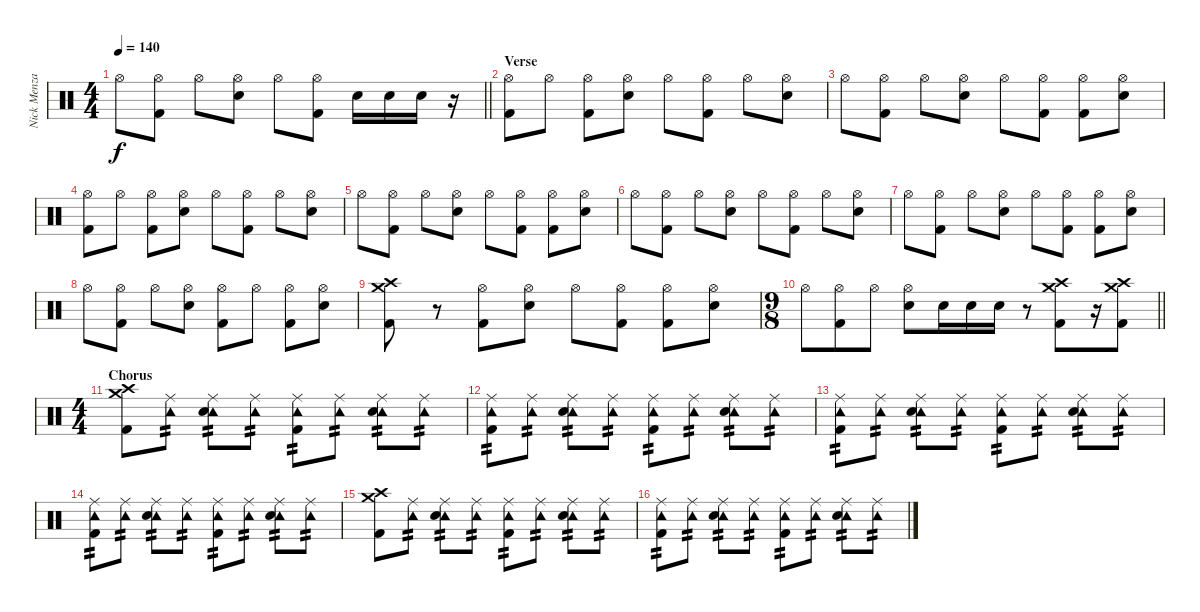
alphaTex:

\track ("Nick Menza" "Nick Menza") {instrument percussion}
\staff {score}
\articulation defaults
\ts (4 4)
\tempo 140
\clef neutral
\barLineRight lightlight
\ks c "Hi-Hat (open)".8{dy f}
("Hi-Hat (open)" "Kick (hit) 2").8 "Hi-Hat (open)".8 ("Hi-Hat (open)" "Snare (hit) 2").8 "Hi-Hat (open)".8 ("Hi-Hat (open)" "Kick (hit) 2").8 "Snare (hit) 2".16 "Snare (hit) 2".16 "Snare (hit) 2".16 r.16 |
\section ("" "Verse")
("Hi-Hat (open)" "Kick (hit) 2").8 "Hi-Hat (open)".8 ("Hi-Hat (open)" "Kick (hit) 2").8 ("Hi-Hat (open)" "Snare (hit) 2").8 "Hi-Hat (open)".8 ("Hi-Hat (open)" "Kick (hit) 2").8 "Hi-Hat (open)".8 ("Hi-Hat (open)" "Snare (hit) 2").8 |
"Hi-Hat (open)".8 ("Hi-Hat (open)" "Kick (hit) 2").8 "Hi-Hat (open)".8 ("Hi-Hat (open)" "Snare (hit) 2").8 "Hi-Hat (open)".8 ("Hi-Hat (open)" "Kick (hit) 2").8 ("Hi-Hat (open)" "Kick (hit) 2").8 ("Hi-Hat (open)" "Snare (hit) 2").8 |
("Hi-Hat (open)" "Kick (hit) 2").8 "Hi-Hat (open)".8 ("Hi-Hat (open)" "Kick (hit) 2").8 ("Hi-Hat (open)" "Snare (hit) 2").8 "Hi-Hat (open)".8 ("Hi-Hat (open)" "Kick (hit) 2").8 "Hi-Hat (open)".8 ("Hi-Hat (open)" "Snare (hit) 2").8 |
"Hi-Hat (open)".8 ("Hi-Hat (open)" "Kick (hit) 2").8 "Hi-Hat (open)".8 ("Hi-Hat (open)" "Snare (hit) 2").8 "Hi-Hat (open)".8 ("Hi-Hat (open)" "Kick (hit) 2").8 ("Hi-Hat (open)" "Kick (hit) 2").8 ("Hi-Hat (open)" "Snare (hit) 2").8 |
"Hi-Hat (open)".8 ("Hi-Hat (open)" "Kick (hit) 2").8 "Hi-Hat (open)".8 ("Hi-Hat (open)" "Snare (hit) 2").8 "Hi-Hat (open)".8 ("Hi-Hat (open)" "Kick (hit) 2").8 "Hi-Hat (open)".8 ("Hi-Hat (open)" "Snare (hit) 2").8 |
"Hi-Hat (open)".8 ("Hi-Hat (open)" "Kick (hit) 2").8 "Hi-Hat (open)".8 ("Hi-Hat (open)" "Snare (hit) 2").8 "Hi-Hat (open)".8 ("Hi-Hat (open)" "Kick (hit) 2").8 ("Hi-Hat (open)" "Kick (hit) 2").8 ("Hi-Hat (open)" "Snare (hit) 2").8 |
"Hi-Hat (open)".8 ("Hi-Hat (open)" "Kick (hit) 2").8 "Hi-Hat (open)".8 ("Hi-Hat (open)" "Snare (hit) 2").8 ("Hi-Hat (open)" "Kick (hit) 2").8 "Hi-Hat (open)".8 ("Hi-Hat (open)" "Kick (hit) 2").8 ("Hi-Hat (open)" "Snare (hit) 2").8 |
("Crash high (hit)" "Crash medium (hit)" "Kick (hit) 2").8 r.8 ("Hi-Hat (open)" "Kick (hit) 2").8 ("Hi-Hat (open)" "Snare (hit) 2").8 "Hi-Hat (open)".8 ("Hi-Hat (open)" "Kick (hit) 2").8 ("Hi-Hat (open)" "Kick (hit) 2").8 ("Hi-Hat (open)" "Snare (hit) 2").8 |
\ts (9 8)
\barLineRight lightlight "Hi-Hat (open)".8
("Hi-Hat (open)" "Kick (hit) 2").8 "Hi-Hat (open)".8 ("Hi-Hat (open)" "Snare (hit) 2").8 "Snare (hit) 2".16 "Snare (hit) 2".16 "Snare (hit) 2".16 r.8 ("Crash high (hit)" "Crash medium (hit)" "Kick (hit) 2").8 r.16 ("Crash high (hit)" "Crash medium (hit)" "Kick (hit) 2").8 |
\ts (4 4)
\section ("" "Chorus")
("Crash high (hit)" "Crash medium (hit)" "Kick (hit) 2").8 ("Tambourine (hit)" "Ride (middle)").8{tp 2} ("Tambourine (hit)" "Ride (middle)" "Snare (hit) 2").8{tp 2} ("Tambourine (hit)" "Ride (middle)").8{tp 2} ("Tambourine (hit)" "Ride (middle)" "Kick (hit) 2").8{tp 2} ("Tambourine (hit)" "Ride (middle)").8{tp 2} ("Tambourine (hit)" "Ride (middle)" "Snare (hit) 2").8{tp 2} ("Tambourine (hit)" "Ride (middle)").8{tp 2} |
("Tambourine (hit)" "Ride (middle)" "Kick (hit) 2").8{tp 2} ("Tambourine (hit)" "Ride (middle)").8{tp 2} ("Tambourine (hit)" "Ride (middle)" "Snare (hit) 2").8{tp 2} ("Tambourine (hit)" "Ride (middle)").8{tp 2} ("Tambourine (hit)" "Ride (middle)" "Kick (hit) 2").8{tp 2} ("Tambourine (hit)" "Ride (middle)").8{tp 2} ("Tambourine (hit)" "Ride (middle)" "Snare (hit) 2").8{tp 2} ("Tambourine (hit)" "Ride (middle)").8{tp 2} |
("Tambourine (hit)" "Ride (middle)" "Kick (hit) 2").8{tp 2} ("Tambourine (hit)" "Ride (middle)").8{tp 2} ("Tambourine (hit)" "Ride (middle)" "Snare (hit) 2").8{tp 2} ("Tambourine (hit)" "Ride (middle)").8{tp 2} ("Tambourine (hit)" "Ride (middle)" "Kick (hit) 2").8{tp 2} ("Tambourine (hit)" "Ride (middle)").8{tp 2} ("Tambourine (hit)" "Ride (middle)" "Snare (hit) 2").8{tp 2} ("Tambourine (hit)" "Ride (middle)").8{tp 2} |
("Tambourine (hit)" "Ride (middle)" "Kick (hit) 2").8{tp 2} ("Tambourine (hit)" "Ride (middle)").8{tp 2} ("Tambourine (hit)" "Ride (middle)" "Snare (hit) 2").8{tp 2} ("Tambourine (hit)" "Ride (middle)").8{tp 2} ("Tambourine (hit)" "Ride (middle)" "Kick (hit) 2").8{tp 2} ("Tambourine (hit)" "Ride (middle)").8{tp 2} ("Tambourine (hit)" "Ride (middle)" "Snare (hit) 2").8{tp 2} ("Tambourine (hit)" "Ride (middle)").8{tp 2} |
("Crash high (hit)" "Crash medium (hit)" "Kick (hit) 2").8 ("Tambourine (hit)" "Ride (middle)").8{tp 2} ("Tambourine (hit)" "Ride (middle)" "Snare (hit) 2").8{tp 2} ("Tambourine (hit)" "Ride (middle)").8{tp 2} ("Tambourine (hit)" "Ride (middle)" "Kick (hit) 2").8{tp 2} ("Tambourine (hit)" "Ride (middle)").8{tp 2} ("Tambourine (hit)" "Ride (middle)" "Snare (hit) 2").8{tp 2} ("Tambourine (hit)" "Ride (middle)").8{tp 2} |
("Tambourine (hit)" "Ride (middle)" "Kick (hit) 2").8{tp 2} ("Tambourine (hit)" "Ride (middle)").8{tp 2} ("Tambourine (hit)" "Ride (middle)" "Snare (hit) 2").8{tp 2} ("Tambourine (hit)" "Ride (middle)").8{tp 2} ("Tambourine (hit)" "Ride (middle)" "Kick (hit) 2").8{tp 2} ("Tambourine (hit)" "Ride (middle)").8{tp 2} ("Tambourine (hit)" "Ride (middle)" "Snare (hit) 2").8{tp 2} ("Tambourine (hit)" "Ride (middle)").8{tp 2}
